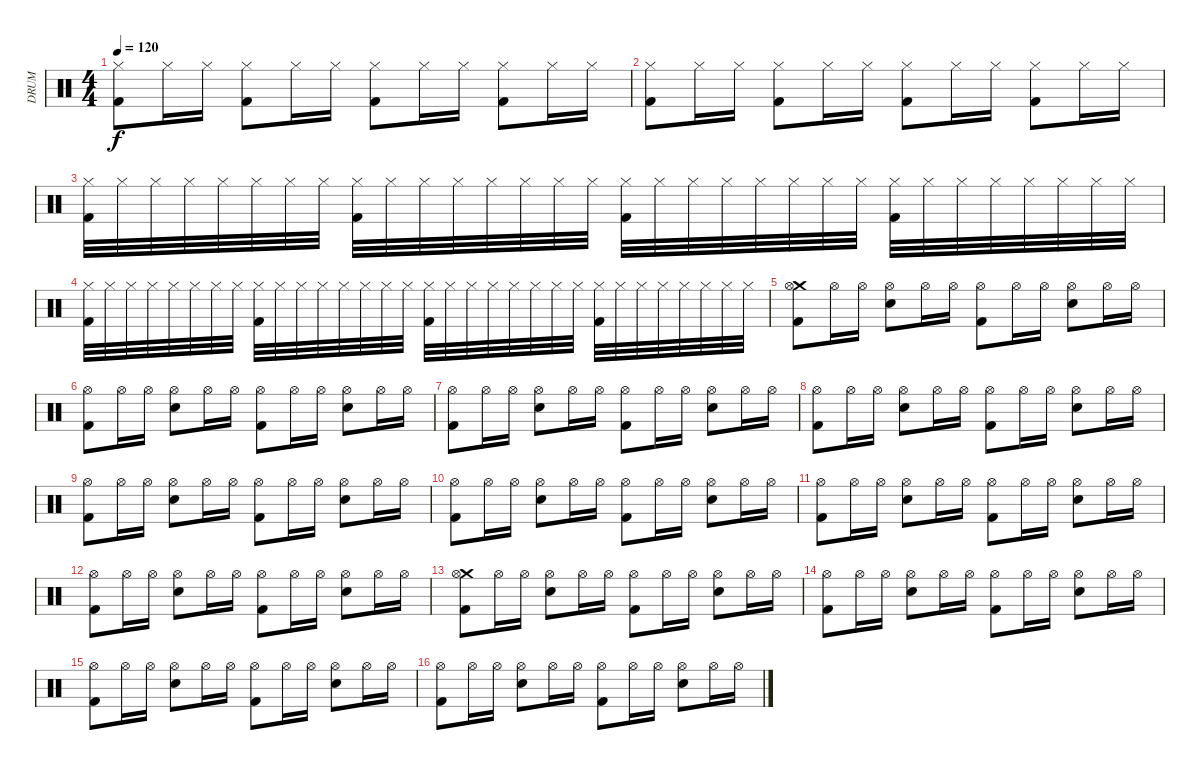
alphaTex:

\track (" DRUM" " DRUM") {instrument percussion}
\staff {score}
\articulation defaults
\ts (4 4)
\tempo 120
\clef neutral
\ks c
("Hi-Hat (closed)" "Kick (hit) 2").8{dy f} "Hi-Hat (closed)".16 "Hi-Hat (closed)".16 ("Hi-Hat (closed)" "Kick (hit) 2").8 "Hi-Hat (closed)".16 "Hi-Hat (closed)".16 ("Hi-Hat (closed)" "Kick (hit) 2").8 "Hi-Hat (closed)".16 "Hi-Hat (closed)".16 ("Hi-Hat (closed)" "Kick (hit) 2").8 "Hi-Hat (closed)".16 "Hi-Hat (closed)".16 |
("Hi-Hat (closed)" "Kick (hit) 2").8 "Hi-Hat (closed)".16 "Hi-Hat (closed)".16 ("Hi-Hat (closed)" "Kick (hit) 2").8 "Hi-Hat (closed)".16 "Hi-Hat (closed)".16 ("Hi-Hat (closed)" "Kick (hit) 2").8 "Hi-Hat (closed)".16 "Hi-Hat (closed)".16 ("Hi-Hat (closed)" "Kick (hit) 2").8 "Hi-Hat (closed)".16 "Hi-Hat (closed)".16 |
("Hi-Hat (closed)" "Kick (hit) 2").32 "Hi-Hat (closed)".32 "Hi-Hat (closed)".32 "Hi-Hat (closed)".32 "Hi-Hat (closed)".32 "Hi-Hat (closed)".32 "Hi-Hat (closed)".32 "Hi-Hat (closed)".32 ("Hi-Hat (closed)" "Kick (hit) 2").32 "Hi-Hat (closed)".32 "Hi-Hat (closed)".32 "Hi-Hat (closed)".32 "Hi-Hat (closed)".32 "Hi-Hat (closed)".32 "Hi-Hat (closed)".32 "Hi-Hat (closed)".32 ("Hi-Hat (closed)" "Kick (hit) 2").32 "Hi-Hat (closed)".32 "Hi-Hat (closed)".32 "Hi-Hat (closed)".32 "Hi-Hat (closed)".32 "Hi-Hat (closed)".32 "Hi-Hat (closed)".32 "Hi-Hat (closed)".32 ("Hi-Hat (closed)" "Kick (hit) 2").32 "Hi-Hat (closed)".32 "Hi-Hat (closed)".32 "Hi-Hat (closed)".32 "Hi-Hat (closed)".32 "Hi-Hat (closed)".32 "Hi-Hat (closed)".32 "Hi-Hat (closed)".32 |
("Hi-Hat (closed)" "Kick (hit) 2").32 "Hi-Hat (closed)".32 "Hi-Hat (closed)".32 "Hi-Hat (closed)".32 "Hi-Hat (closed)".32 "Hi-Hat (closed)".32 "Hi-Hat (closed)".32 "Hi-Hat (closed)".32 ("Hi-Hat (closed)" "Kick (hit) 2").32 "Hi-Hat (closed)".32 "Hi-Hat (closed)".32 "Hi-Hat (closed)".32 "Hi-Hat (closed)".32 "Hi-Hat (closed)".32 "Hi-Hat (closed)".32 "Hi-Hat (closed)".32 ("Hi-Hat (closed)" "Kick (hit) 2").32 "Hi-Hat (closed)".32 "Hi-Hat (closed)".32 "Hi-Hat (closed)".32 "Hi-Hat (closed)".32 "Hi-Hat (closed)".32 "Hi-Hat (closed)".32 "Hi-Hat (closed)".32 ("Hi-Hat (closed)" "Kick (hit) 2").32 "Hi-Hat (closed)".32 "Hi-Hat (closed)".32 "Hi-Hat (closed)".32 "Hi-Hat (closed)".32 "Hi-Hat (closed)".32 "Hi-Hat (closed)".32 "Hi-Hat (closed)".32 |
("Crash medium (hit)" "Hi-Hat (open)" "Kick (hit) 2").8 "Hi-Hat (open)".16 "Hi-Hat (open)".16 ("Hi-Hat (open)" "Electric Snare (hit)").8 "Hi-Hat (open)".16 "Hi-Hat (open)".16 ("Hi-Hat (open)" "Kick (hit) 2").8 "Hi-Hat (open)".16 "Hi-Hat (open)".16 ("Hi-Hat (open)" "Electric Snare (hit)").8 "Hi-Hat (open)".16 "Hi-Hat (open)".16 |
("Hi-Hat (open)" "Kick (hit) 2").8 "Hi-Hat (open)".16 "Hi-Hat (open)".16 ("Hi-Hat (open)" "Electric Snare (hit)").8 "Hi-Hat (open)".16 "Hi-Hat (open)".16 ("Hi-Hat (open)" "Kick (hit) 2").8 "Hi-Hat (open)".16 "Hi-Hat (open)".16 ("Hi-Hat (open)" "Electric Snare (hit)").8 "Hi-Hat (open)".16 "Hi-Hat (open)".16 |
("Hi-Hat (open)" "Kick (hit) 2").8 "Hi-Hat (open)".16 "Hi-Hat (open)".16 ("Hi-Hat (open)" "Electric Snare (hit)").8 "Hi-Hat (open)".16 "Hi-Hat (open)".16 ("Hi-Hat (open)" "Kick (hit) 2").8 "Hi-Hat (open)".16 "Hi-Hat (open)".16 ("Hi-Hat (open)" "Electric Snare (hit)").8 "Hi-Hat (open)".16 "Hi-Hat (open)".16 |
("Hi-Hat (open)" "Kick (hit) 2").8 "Hi-Hat (open)".16 "Hi-Hat (open)".16 ("Hi-Hat (open)" "Electric Snare (hit)").8 "Hi-Hat (open)".16 "Hi-Hat (open)".16 ("Hi-Hat (open)" "Kick (hit) 2").8 "Hi-Hat (open)".16 "Hi-Hat (open)".16 ("Hi-Hat (open)" "Electric Snare (hit)").8 "Hi-Hat (open)".16 "Hi-Hat (open)".16 |
("Hi-Hat (open)" "Kick (hit) 2").8 "Hi-Hat (open)".16 "Hi-Hat (open)".16 ("Hi-Hat (open)" "Electric Snare (hit)").8 "Hi-Hat (open)".16 "Hi-Hat (open)".16 ("Hi-Hat (open)" "Kick (hit) 2").8 "Hi-Hat (open)".16 "Hi-Hat (open)".16 ("Hi-Hat (open)" "Electric Snare (hit)").8 "Hi-Hat (open)".16 "Hi-Hat (open)".16 |
("Hi-Hat (open)" "Kick (hit) 2").8 "Hi-Hat (open)".16 "Hi-Hat (open)".16 ("Hi-Hat (open)" "Electric Snare (hit)").8 "Hi-Hat (open)".16 "Hi-Hat (open)".16 ("Hi-Hat (open)" "Kick (hit) 2").8 "Hi-Hat (open)".16 "Hi-Hat (open)".16 ("Hi-Hat (open)" "Electric Snare (hit)").8 "Hi-Hat (open)".16 "Hi-Hat (open)".16 |
("Hi-Hat (open)" "Kick (hit) 2").8 "Hi-Hat (open)".16 "Hi-Hat (open)".16 ("Hi-Hat (open)" "Electric Snare (hit)").8 "Hi-Hat (open)".16 "Hi-Hat (open)".16 ("Hi-Hat (open)" "Kick (hit) 2").8 "Hi-Hat (open)".16 "Hi-Hat (open)".16 ("Hi-Hat (open)" "Electric Snare (hit)").8 "Hi-Hat (open)".16 "Hi-Hat (open)".16 |
("Hi-Hat (open)" "Kick (hit) 2").8 "Hi-Hat (open)".16 "Hi-Hat (open)".16 ("Hi-Hat (open)" "Electric Snare (hit)").8 "Hi-Hat (open)".16 "Hi-Hat (open)".16 ("Hi-Hat (open)" "Kick (hit) 2").8 "Hi-Hat (open)".16 "Hi-Hat (open)".16 ("Hi-Hat (open)" "Electric Snare (hit)").8 "Hi-Hat (open)".16 "Hi-Hat (open)".16 |
("Crash medium (hit)" "Hi-Hat (open)" "Kick (hit) 2").8 "Hi-Hat (open)".16 "Hi-Hat (open)".16 ("Hi-Hat (open)" "Electric Snare (hit)").8 "Hi-Hat (open)".16 "Hi-Hat (open)".16 ("Hi-Hat (open)" "Kick (hit) 2").8 "Hi-Hat (open)".16 "Hi-Hat (open)".16 ("Hi-Hat (open)" "Electric Snare (hit)").8 "Hi-Hat (open)".16 "Hi-Hat (open)".16 |
("Hi-Hat (open)" "Kick (hit) 2").8 "Hi-Hat (open)".16 "Hi-Hat (open)".16 ("Hi-Hat (open)" "Electric Snare (hit)").8 "Hi-Hat (open)".16 "Hi-Hat (open)".16 ("Hi-Hat (open)" "Kick (hit) 2").8 "Hi-Hat (open)".16 "Hi-Hat (open)".16 ("Hi-Hat (open)" "Electric Snare (hit)").8 "Hi-Hat (open)".16 "Hi-Hat (open)".16 |
("Hi-Hat (open)" "Kick (hit) 2").8 "Hi-Hat (open)".16 "Hi-Hat (open)".16 ("Hi-Hat (open)" "Electric Snare (hit)").8 "Hi-Hat (open)".16 "Hi-Hat (open)".16 ("Hi-Hat (open)" "Kick (hit) 2").8 "Hi-Hat (open)".16 "Hi-Hat (open)".16 ("Hi-Hat (open)" "Electric Snare (hit)").8 "Hi-Hat (open)".16 "Hi-Hat (open)".16 |
("Hi-Hat (open)" "Kick (hit) 2").8 "Hi-Hat (open)".16 "Hi-Hat (open)".16 ("Hi-Hat (open)" "Electric Snare (hit)").8 "Hi-Hat (open)".16 "Hi-Hat (open)".16 ("Hi-Hat (open)" "Kick (hit) 2").8 "Hi-Hat (open)".16 "Hi-Hat (open)".16 ("Hi-Hat (open)" "Electric Snare (hit)").8 "Hi-Hat (open)".16 "Hi-Hat (open)".16
